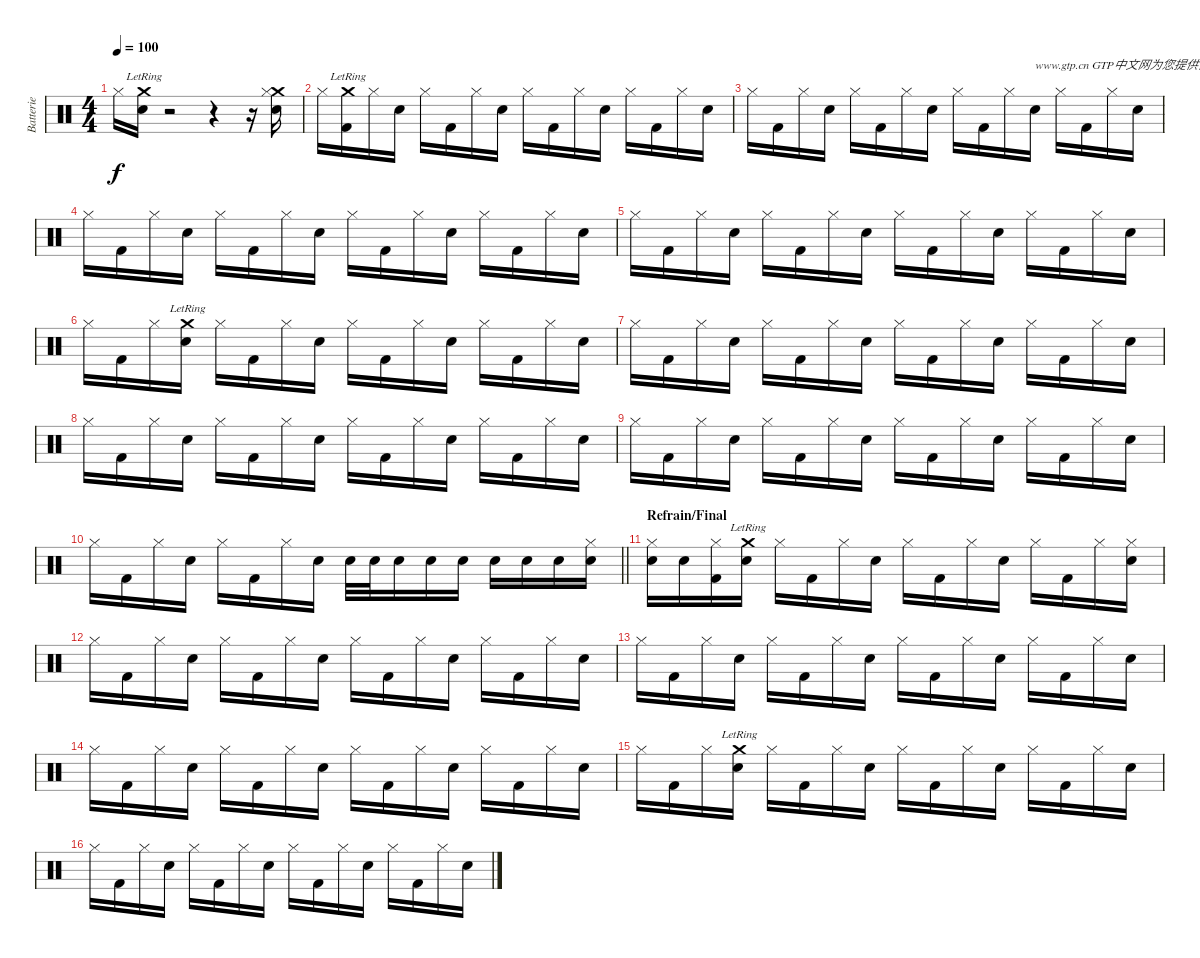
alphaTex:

\track ("Batterie" "Batterie") {instrument percussion}
\staff {score}
\articulation defaults
\ts (4 4)
\tempo 100
\clef neutral
\ks c "Hi-Hat (closed)".16{dy f}
("Crash medium (hit)"{lr} "Electric Snare (hit)").16 r.2 r.4 r.16 ("Crash medium (hit)" "Electric Snare (hit)" "Hi-Hat (closed)").16 |
"Hi-Hat (closed)".16 ("Crash medium (hit)"{lr} "Kick (hit) 2").16 "Hi-Hat (closed)".16 "Electric Snare (hit)".16 "Hi-Hat (closed)".16 "Kick (hit) 2".16 "Hi-Hat (closed)".16 "Electric Snare (hit)".16 "Hi-Hat (closed)".16 "Kick (hit) 2".16 "Hi-Hat (closed)".16 "Electric Snare (hit)".16 "Hi-Hat (closed)".16 "Kick (hit) 2".16 "Hi-Hat (closed)".16 "Electric Snare (hit)".16 |
"Hi-Hat (closed)".16 "Kick (hit) 2".16 "Hi-Hat (closed)".16 "Electric Snare (hit)".16 "Hi-Hat (closed)".16 "Kick (hit) 2".16 "Hi-Hat (closed)".16 "Electric Snare (hit)".16 "Hi-Hat (closed)".16 "Kick (hit) 2".16 "Hi-Hat (closed)".16 "Electric Snare (hit)".16{txt "www.gtp.cn GTP中文网为您提供优秀的谱子"} "Hi-Hat (closed)".16 "Kick (hit) 2".16 "Hi-Hat (closed)".16 "Electric Snare (hit)".16 |
"Hi-Hat (closed)".16 "Kick (hit) 2".16 "Hi-Hat (closed)".16 "Electric Snare (hit)".16 "Hi-Hat (closed)".16 "Kick (hit) 2".16 "Hi-Hat (closed)".16 "Electric Snare (hit)".16 "Hi-Hat (closed)".16 "Kick (hit) 2".16 "Hi-Hat (closed)".16 "Electric Snare (hit)".16 "Hi-Hat (closed)".16 "Kick (hit) 2".16 "Hi-Hat (closed)".16 "Electric Snare (hit)".16 |
"Hi-Hat (closed)".16 "Kick (hit) 2".16 "Hi-Hat (closed)".16 "Electric Snare (hit)".16 "Hi-Hat (closed)".16 "Kick (hit) 2".16 "Hi-Hat (closed)".16 "Electric Snare (hit)".16 "Hi-Hat (closed)".16 "Kick (hit) 2".16 "Hi-Hat (closed)".16 "Electric Snare (hit)".16 "Hi-Hat (closed)".16 "Kick (hit) 2".16 "Hi-Hat (closed)".16 "Electric Snare (hit)".16 |
"Hi-Hat (closed)".16 "Kick (hit) 2".16 "Hi-Hat (closed)".16 ("Crash medium (hit)"{lr} "Electric Snare (hit)").16 "Hi-Hat (closed)".16 "Kick (hit) 2".16 "Hi-Hat (closed)".16 "Electric Snare (hit)".16 "Hi-Hat (closed)".16 "Kick (hit) 2".16 "Hi-Hat (closed)".16 "Electric Snare (hit)".16 "Hi-Hat (closed)".16 "Kick (hit) 2".16 "Hi-Hat (closed)".16 "Electric Snare (hit)".16 |
"Hi-Hat (closed)".16 "Kick (hit) 2".16 "Hi-Hat (closed)".16 "Electric Snare (hit)".16 "Hi-Hat (closed)".16 "Kick (hit) 2".16 "Hi-Hat (closed)".16 "Electric Snare (hit)".16 "Hi-Hat (closed)".16 "Kick (hit) 2".16 "Hi-Hat (closed)".16 "Electric Snare (hit)".16 "Hi-Hat (closed)".16 "Kick (hit) 2".16 "Hi-Hat (closed)".16 "Electric Snare (hit)".16 |
"Hi-Hat (closed)".16 "Kick (hit) 2".16 "Hi-Hat (closed)".16 "Electric Snare (hit)".16 "Hi-Hat (closed)".16 "Kick (hit) 2".16 "Hi-Hat (closed)".16 "Electric Snare (hit)".16 "Hi-Hat (closed)".16 "Kick (hit) 2".16 "Hi-Hat (closed)".16 "Electric Snare (hit)".16 "Hi-Hat (closed)".16 "Kick (hit) 2".16 "Hi-Hat (closed)".16 "Electric Snare (hit)".16 |
"Hi-Hat (closed)".16 "Kick (hit) 2".16 "Hi-Hat (closed)".16 "Electric Snare (hit)".16 "Hi-Hat (closed)".16 "Kick (hit) 2".16 "Hi-Hat (closed)".16 "Electric Snare (hit)".16 "Hi-Hat (closed)".16 "Kick (hit) 2".16 "Hi-Hat (closed)".16 "Electric Snare (hit)".16 "Hi-Hat (closed)".16 "Kick (hit) 2".16 "Hi-Hat (closed)".16 "Electric Snare (hit)".16 |
\barLineRight lightlight "Hi-Hat (closed)".16 "Kick (hit) 2".16 "Hi-Hat (closed)".16 "Electric Snare (hit)".16 "Hi-Hat (closed)".16 "Kick (hit) 2".16 "Hi-Hat (closed)".16 "Electric Snare (hit)".16 "Electric Snare (hit)".32 "Electric Snare (hit)".32 "Electric Snare (hit)".16 "Electric Snare (hit)".16 "Electric Snare (hit)".16 "Electric Snare (hit)".16 "Electric Snare (hit)".16 "Electric Snare (hit)".16
("Electric Snare (hit)" "Hi-Hat (closed)").16 |
\section ("" "Refrain/Final")
("Electric Snare (hit)" "Hi-Hat (closed)").16 "Electric Snare (hit)".16 ("Kick (hit) 2" "Hi-Hat (closed)").16 ("Crash medium (hit)"{lr} "Electric Snare (hit)").16 "Hi-Hat (closed)".16 "Kick (hit) 2".16 "Hi-Hat (closed)".16 "Electric Snare (hit)".16 "Hi-Hat (closed)".16 "Kick (hit) 2".16 "Hi-Hat (closed)".16 "Electric Snare (hit)".16 "Hi-Hat (closed)".16 "Kick (hit) 2".16 "Hi-Hat (closed)".16 ("Electric Snare (hit)" "Hi-Hat (closed)").16 |
"Hi-Hat (closed)".16 "Kick (hit) 2".16 "Hi-Hat (closed)".16 "Electric Snare (hit)".16 "Hi-Hat (closed)".16 "Kick (hit) 2".16 "Hi-Hat (closed)".16 "Electric Snare (hit)".16 "Hi-Hat (closed)".16 "Kick (hit) 2".16 "Hi-Hat (closed)".16 "Electric Snare (hit)".16 "Hi-Hat (closed)".16 "Kick (hit) 2".16 "Hi-Hat (closed)".16 "Electric Snare (hit)".16 |
"Hi-Hat (closed)".16 "Kick (hit) 2".16 "Hi-Hat (closed)".16 "Electric Snare (hit)".16 "Hi-Hat (closed)".16 "Kick (hit) 2".16 "Hi-Hat (closed)".16 "Electric Snare (hit)".16 "Hi-Hat (closed)".16 "Kick (hit) 2".16 "Hi-Hat (closed)".16 "Electric Snare (hit)".16 "Hi-Hat (closed)".16 "Kick (hit) 2".16 "Hi-Hat (closed)".16 "Electric Snare (hit)".16 |
"Hi-Hat (closed)".16 "Kick (hit) 2".16 "Hi-Hat (closed)".16 "Electric Snare (hit)".16 "Hi-Hat (closed)".16 "Kick (hit) 2".16 "Hi-Hat (closed)".16 "Electric Snare (hit)".16 "Hi-Hat (closed)".16 "Kick (hit) 2".16 "Hi-Hat (closed)".16 "Electric Snare (hit)".16 "Hi-Hat (closed)".16 "Kick (hit) 2".16 "Hi-Hat (closed)".16 "Electric Snare (hit)".16 |
"Hi-Hat (closed)".16 "Kick (hit) 2".16 "Hi-Hat (closed)".16 ("Crash medium (hit)"{lr} "Electric Snare (hit)").16 "Hi-Hat (closed)".16 "Kick (hit) 2".16 "Hi-Hat (closed)".16 "Electric Snare (hit)".16 "Hi-Hat (closed)".16 "Kick (hit) 2".16 "Hi-Hat (closed)".16 "Electric Snare (hit)".16 "Hi-Hat (closed)".16 "Kick (hit) 2".16 "Hi-Hat (closed)".16 "Electric Snare (hit)".16 |
"Hi-Hat (closed)".16 "Kick (hit) 2".16 "Hi-Hat (closed)".16 "Electric Snare (hit)".16 "Hi-Hat (closed)".16 "Kick (hit) 2".16 "Hi-Hat (closed)".16 "Electric Snare (hit)".16 "Hi-Hat (closed)".16 "Kick (hit) 2".16 "Hi-Hat (closed)".16 "Electric Snare (hit)".16 "Hi-Hat (closed)".16 "Kick (hit) 2".16 "Hi-Hat (closed)".16 "Electric Snare (hit)".16
